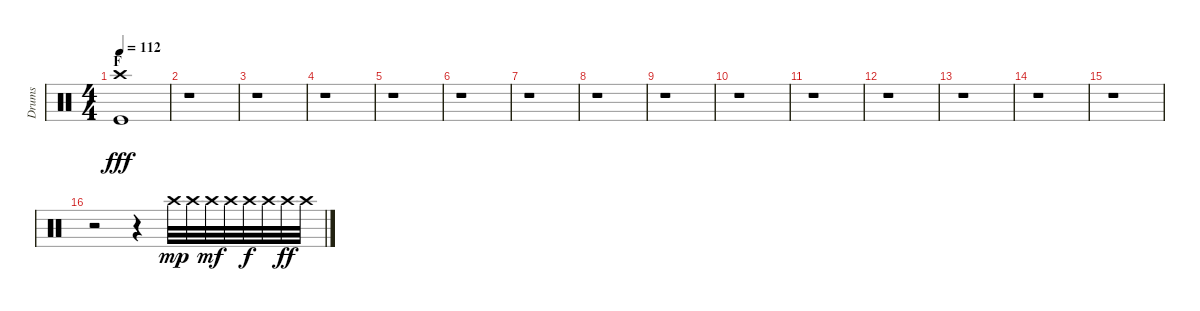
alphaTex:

\track ("Drums" "Drums") {instrument percussion}
\staff {score}
\articulation defaults
\ts (4 4)
\section ("" "F")
\tempo 112
\clef neutral
\ks c
("Crash high (hit)" "Kick (hit)").1{dy fff} |
r.1 |
r.1 |
r.1 |
r.1 |
r.1 |
r.1 |
r.1 |
r.1 |
r.1 |
r.1 |
r.1 |
r.1 |
r.1 |
r.1 |
r.2 r.4 "Crash high (hit)".32{dy mp} "Crash high (hit)".32 "Crash high (hit)".32{dy mf} "Crash high (hit)".32 "Crash high (hit)".32{dy f} "Crash high (hit)".32 "Crash high (hit)".32{dy ff} "Crash high (hit)".32
